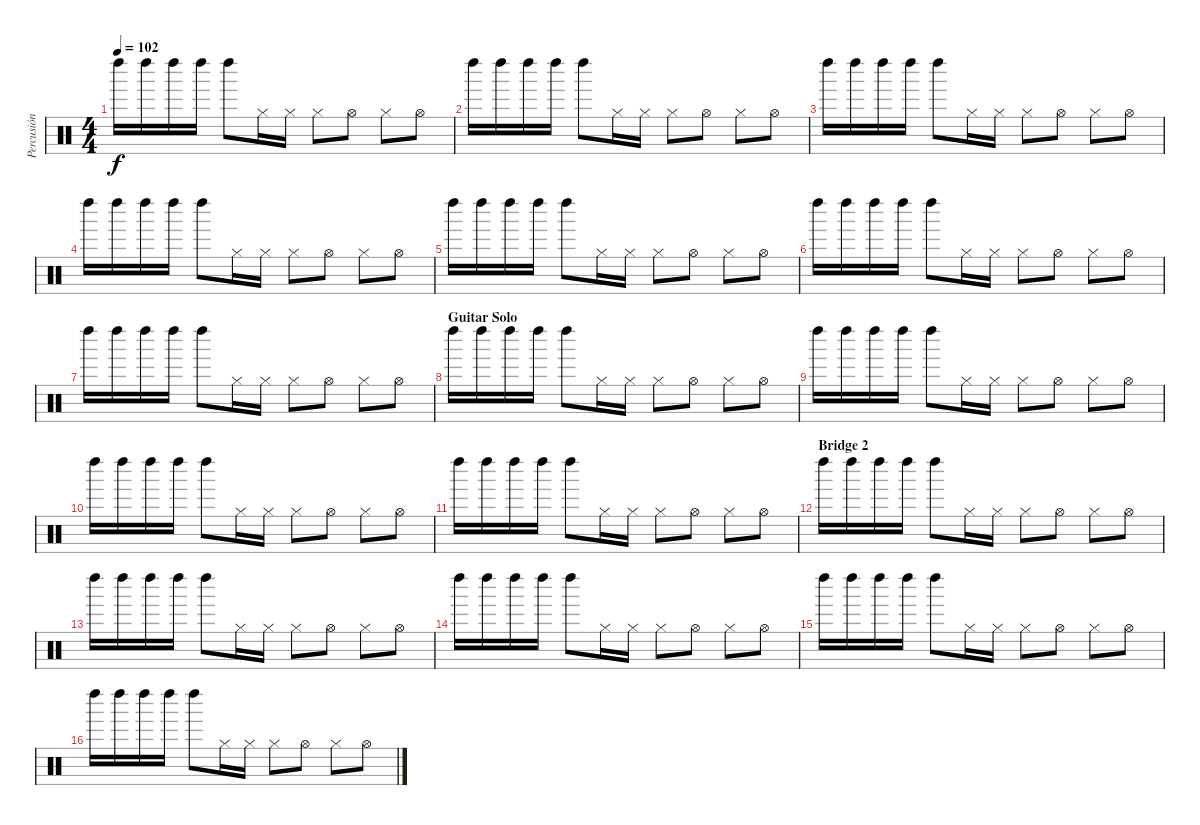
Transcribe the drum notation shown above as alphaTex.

\track ("Percusión" "Percusión") {instrument percussion}
\staff {score}
\articulation defaults
\ts (4 4)
\tempo 102
\clef neutral
\ks c "Left Maraca (hit)".16{dy f} "Left Maraca (hit)".16 "Left Maraca (hit)".16 "Left Maraca (hit)".16 "Left Maraca (hit)".8 "Hi-Hat (closed)".16 "Hi-Hat (closed)".16 "Hi-Hat (closed)".8 "Hi-Hat (open)".8 "Hi-Hat (closed)".8 "Hi-Hat (open)".8
|
"Left Maraca (hit)".16 "Left Maraca (hit)".16 "Left Maraca (hit)".16 "Left Maraca (hit)".16 "Left Maraca (hit)".8 "Hi-Hat (closed)".16 "Hi-Hat (closed)".16 "Hi-Hat (closed)".8 "Hi-Hat (open)".8 "Hi-Hat (closed)".8 "Hi-Hat (open)".8 |
"Left Maraca (hit)".16 "Left Maraca (hit)".16 "Left Maraca (hit)".16 "Left Maraca (hit)".16 "Left Maraca (hit)".8 "Hi-Hat (closed)".16 "Hi-Hat (closed)".16 "Hi-Hat (closed)".8 "Hi-Hat (open)".8 "Hi-Hat (closed)".8 "Hi-Hat (open)".8 |
"Left Maraca (hit)".16 "Left Maraca (hit)".16 "Left Maraca (hit)".16 "Left Maraca (hit)".16 "Left Maraca (hit)".8 "Hi-Hat (closed)".16 "Hi-Hat (closed)".16 "Hi-Hat (closed)".8 "Hi-Hat (open)".8 "Hi-Hat (closed)".8 "Hi-Hat (open)".8 |
"Left Maraca (hit)".16 "Left Maraca (hit)".16 "Left Maraca (hit)".16 "Left Maraca (hit)".16 "Left Maraca (hit)".8 "Hi-Hat (closed)".16 "Hi-Hat (closed)".16 "Hi-Hat (closed)".8 "Hi-Hat (open)".8 "Hi-Hat (closed)".8 "Hi-Hat (open)".8 |
"Left Maraca (hit)".16 "Left Maraca (hit)".16 "Left Maraca (hit)".16 "Left Maraca (hit)".16 "Left Maraca (hit)".8 "Hi-Hat (closed)".16 "Hi-Hat (closed)".16 "Hi-Hat (closed)".8 "Hi-Hat (open)".8 "Hi-Hat (closed)".8 "Hi-Hat (open)".8 |
"Left Maraca (hit)".16 "Left Maraca (hit)".16 "Left Maraca (hit)".16 "Left Maraca (hit)".16 "Left Maraca (hit)".8 "Hi-Hat (closed)".16 "Hi-Hat (closed)".16 "Hi-Hat (closed)".8 "Hi-Hat (open)".8 "Hi-Hat (closed)".8 "Hi-Hat (open)".8 |
\section ("" "Guitar Solo")
"Left Maraca (hit)".16 "Left Maraca (hit)".16 "Left Maraca (hit)".16 "Left Maraca (hit)".16 "Left Maraca (hit)".8 "Hi-Hat (closed)".16 "Hi-Hat (closed)".16 "Hi-Hat (closed)".8 "Hi-Hat (open)".8 "Hi-Hat (closed)".8 "Hi-Hat (open)".8 |
"Left Maraca (hit)".16 "Left Maraca (hit)".16 "Left Maraca (hit)".16 "Left Maraca (hit)".16 "Left Maraca (hit)".8 "Hi-Hat (closed)".16 "Hi-Hat (closed)".16 "Hi-Hat (closed)".8 "Hi-Hat (open)".8 "Hi-Hat (closed)".8 "Hi-Hat (open)".8 |
"Left Maraca (hit)".16 "Left Maraca (hit)".16 "Left Maraca (hit)".16 "Left Maraca (hit)".16 "Left Maraca (hit)".8 "Hi-Hat (closed)".16 "Hi-Hat (closed)".16 "Hi-Hat (closed)".8 "Hi-Hat (open)".8 "Hi-Hat (closed)".8 "Hi-Hat (open)".8 |
"Left Maraca (hit)".16 "Left Maraca (hit)".16 "Left Maraca (hit)".16 "Left Maraca (hit)".16 "Left Maraca (hit)".8 "Hi-Hat (closed)".16 "Hi-Hat (closed)".16 "Hi-Hat (closed)".8 "Hi-Hat (open)".8 "Hi-Hat (closed)".8 "Hi-Hat (open)".8 |
\section ("" "Bridge 2")
"Left Maraca (hit)".16 "Left Maraca (hit)".16 "Left Maraca (hit)".16 "Left Maraca (hit)".16 "Left Maraca (hit)".8 "Hi-Hat (closed)".16 "Hi-Hat (closed)".16 "Hi-Hat (closed)".8 "Hi-Hat (open)".8 "Hi-Hat (closed)".8 "Hi-Hat (open)".8 |
"Left Maraca (hit)".16 "Left Maraca (hit)".16 "Left Maraca (hit)".16 "Left Maraca (hit)".16 "Left Maraca (hit)".8 "Hi-Hat (closed)".16 "Hi-Hat (closed)".16 "Hi-Hat (closed)".8 "Hi-Hat (open)".8 "Hi-Hat (closed)".8 "Hi-Hat (open)".8 |
"Left Maraca (hit)".16 "Left Maraca (hit)".16 "Left Maraca (hit)".16 "Left Maraca (hit)".16 "Left Maraca (hit)".8 "Hi-Hat (closed)".16 "Hi-Hat (closed)".16 "Hi-Hat (closed)".8 "Hi-Hat (open)".8 "Hi-Hat (closed)".8 "Hi-Hat (open)".8 |
"Left Maraca (hit)".16 "Left Maraca (hit)".16 "Left Maraca (hit)".16 "Left Maraca (hit)".16 "Left Maraca (hit)".8 "Hi-Hat (closed)".16 "Hi-Hat (closed)".16 "Hi-Hat (closed)".8 "Hi-Hat (open)".8 "Hi-Hat (closed)".8 "Hi-Hat (open)".8 |
"Left Maraca (hit)".16 "Left Maraca (hit)".16 "Left Maraca (hit)".16 "Left Maraca (hit)".16 "Left Maraca (hit)".8 "Hi-Hat (closed)".16 "Hi-Hat (closed)".16 "Hi-Hat (closed)".8 "Hi-Hat (open)".8 "Hi-Hat (closed)".8 "Hi-Hat (open)".8
